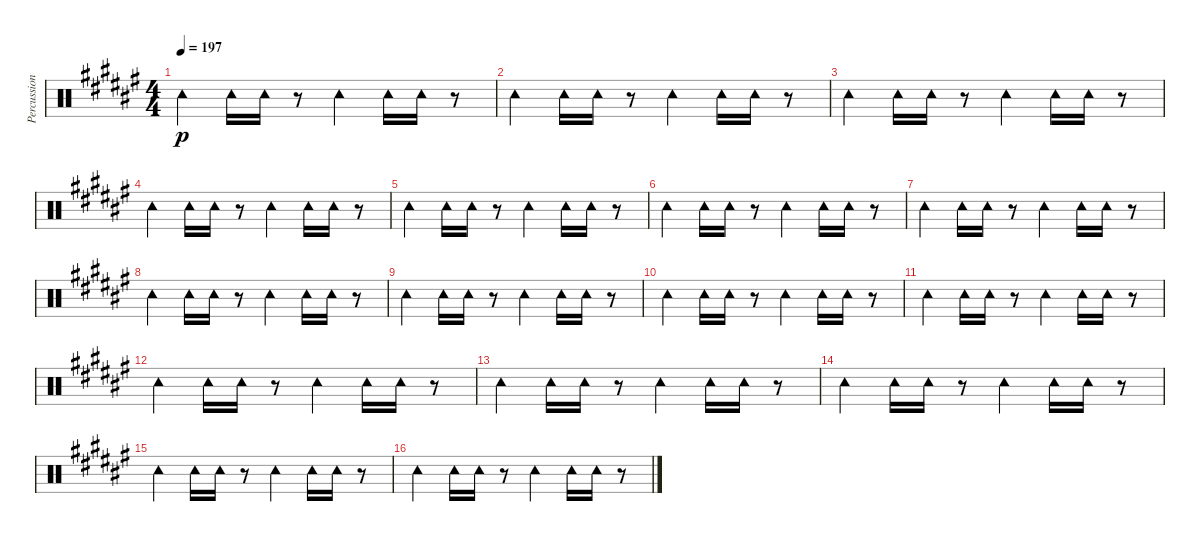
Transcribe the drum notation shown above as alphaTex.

\track ("Percussion (Tainaka Ritsu)" "Percussion") {instrument percussion}
\staff {score}
\articulation defaults
\ts (4 4)
\tempo 197
\clef neutral
\ks f# "Tambourine (hit)".4{dy p} "Tambourine (hit)".16 "Tambourine (hit)".16
r.8 "Tambourine (hit)".4 "Tambourine (hit)".16 "Tambourine (hit)".16 r.8 |
"Tambourine (hit)".4 "Tambourine (hit)".16 "Tambourine (hit)".16 r.8 "Tambourine (hit)".4 "Tambourine (hit)".16 "Tambourine (hit)".16 r.8 |
"Tambourine (hit)".4 "Tambourine (hit)".16 "Tambourine (hit)".16 r.8 "Tambourine (hit)".4 "Tambourine (hit)".16 "Tambourine (hit)".16 r.8 |
"Tambourine (hit)".4 "Tambourine (hit)".16 "Tambourine (hit)".16 r.8 "Tambourine (hit)".4 "Tambourine (hit)".16 "Tambourine (hit)".16 r.8 |
"Tambourine (hit)".4 "Tambourine (hit)".16 "Tambourine (hit)".16 r.8 "Tambourine (hit)".4 "Tambourine (hit)".16 "Tambourine (hit)".16 r.8 |
"Tambourine (hit)".4 "Tambourine (hit)".16 "Tambourine (hit)".16 r.8 "Tambourine (hit)".4 "Tambourine (hit)".16 "Tambourine (hit)".16 r.8 |
"Tambourine (hit)".4 "Tambourine (hit)".16 "Tambourine (hit)".16 r.8 "Tambourine (hit)".4 "Tambourine (hit)".16 "Tambourine (hit)".16 r.8 |
"Tambourine (hit)".4 "Tambourine (hit)".16 "Tambourine (hit)".16 r.8 "Tambourine (hit)".4 "Tambourine (hit)".16 "Tambourine (hit)".16 r.8 |
"Tambourine (hit)".4 "Tambourine (hit)".16 "Tambourine (hit)".16 r.8 "Tambourine (hit)".4 "Tambourine (hit)".16 "Tambourine (hit)".16 r.8 |
"Tambourine (hit)".4 "Tambourine (hit)".16 "Tambourine (hit)".16 r.8 "Tambourine (hit)".4 "Tambourine (hit)".16 "Tambourine (hit)".16 r.8 |
"Tambourine (hit)".4 "Tambourine (hit)".16 "Tambourine (hit)".16 r.8 "Tambourine (hit)".4 "Tambourine (hit)".16 "Tambourine (hit)".16 r.8 |
"Tambourine (hit)".4 "Tambourine (hit)".16 "Tambourine (hit)".16 r.8 "Tambourine (hit)".4 "Tambourine (hit)".16 "Tambourine (hit)".16 r.8 |
"Tambourine (hit)".4 "Tambourine (hit)".16 "Tambourine (hit)".16 r.8 "Tambourine (hit)".4 "Tambourine (hit)".16 "Tambourine (hit)".16 r.8 |
"Tambourine (hit)".4 "Tambourine (hit)".16 "Tambourine (hit)".16 r.8 "Tambourine (hit)".4 "Tambourine (hit)".16 "Tambourine (hit)".16 r.8 |
"Tambourine (hit)".4 "Tambourine (hit)".16 "Tambourine (hit)".16 r.8 "Tambourine (hit)".4 "Tambourine (hit)".16 "Tambourine (hit)".16 r.8 |
"Tambourine (hit)".4 "Tambourine (hit)".16 "Tambourine (hit)".16 r.8 "Tambourine (hit)".4 "Tambourine (hit)".16 "Tambourine (hit)".16 r.8
